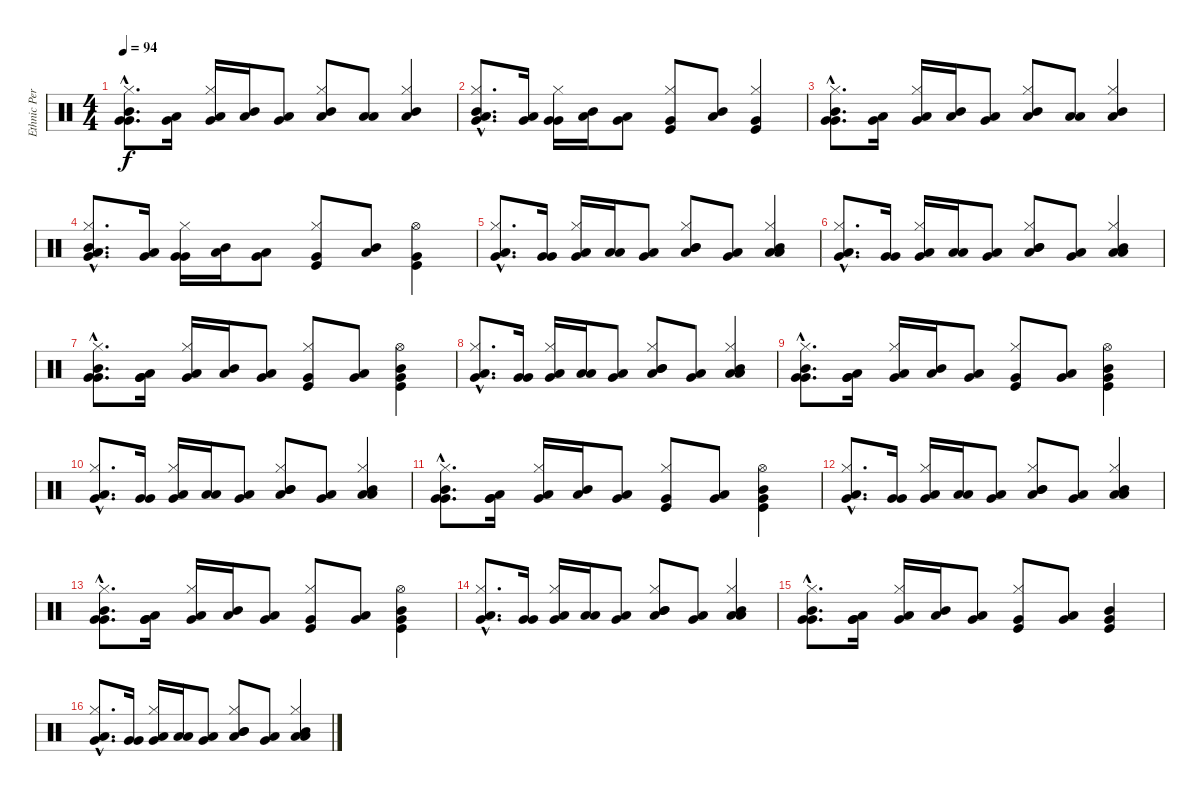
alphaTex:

\track ("Ethnic Percussion" "Ethnic Per") {instrument percussion}
\staff {score}
\articulation defaults
\ts (4 4)
\tempo 94
\clef neutral
\ks c
("Very Low Tom (hit)"{hac} "Very Low Tom (hit)"{hac} "Mid Tom (hit)"{hac} "Hi-Hat (closed)"{hac}).8{d dy f volume 3} ("Low Tom (hit)" "Very Low Tom (hit)").16 ("Very Low Tom (hit)" "Low Tom (hit)" "Hi-Hat (closed)").16 ("Mid Tom (hit)" "Low Tom (hit)").16 ("Very Low Tom (hit)" "Low Tom (hit)").8 ("Mid Tom (hit)" "Low Tom (hit)" "Hi-Hat (closed)").8 ("Low Tom (hit)" "Low Tom (hit)").8 ("Mid Tom (hit)" "Low Floor Tom (hit)" "Hi-Hat (closed)").4 |
("Low Tom (hit)"{hac} "Very Low Tom (hit)"{hac} "Mid Tom (hit)"{hac} "Hi-Hat (closed)"{hac}).8{d volume 2} ("Low Tom (hit)" "Very Low Tom (hit)").16 ("Very Low Tom (hit)" "Very Low Tom (hit)" "Hi-Hat (closed)").16 ("Mid Tom (hit)" "Low Tom (hit)").16 ("Very Low Tom (hit)" "Low Tom (hit)").8 ("Kick (hit)" "Very Low Tom (hit)" "Hi-Hat (closed)").8 ("Low Tom (hit)" "Mid Tom (hit)").8 ("Very Low Tom (hit)" "Kick (hit)" "Hi-Hat (closed)").4 |
("Very Low Tom (hit)"{hac} "Very Low Tom (hit)"{hac} "Mid Tom (hit)"{hac} "Hi-Hat (closed)"{hac}).8{d volume 3} ("Low Tom (hit)" "Very Low Tom (hit)").16 ("Very Low Tom (hit)" "Low Tom (hit)" "Hi-Hat (closed)").16 ("Mid Tom (hit)" "Low Tom (hit)").16 ("Very Low Tom (hit)" "Low Tom (hit)").8 ("Mid Tom (hit)" "Low Tom (hit)" "Hi-Hat (closed)").8 ("Low Tom (hit)" "Low Tom (hit)").8 ("Mid Tom (hit)" "Low Floor Tom (hit)" "Hi-Hat (closed)").4 |
("Low Tom (hit)"{hac} "Very Low Tom (hit)"{hac} "Mid Tom (hit)"{hac} "Hi-Hat (closed)"{hac}).8{d volume 5} ("Low Tom (hit)" "Very Low Tom (hit)").16 ("Very Low Tom (hit)" "Very Low Tom (hit)" "Hi-Hat (closed)").16 ("Mid Tom (hit)" "Low Tom (hit)").16 ("Very Low Tom (hit)" "Low Tom (hit)").8 ("Kick (hit)" "Very Low Tom (hit)" "Hi-Hat (closed)").8 ("Low Tom (hit)" "Mid Tom (hit)").8 ("Very Low Tom (hit)" "Kick (hit)" "Hi-Hat (open)").4 |
("Very Low Tom (hit)"{hac} "Low Floor Tom (hit)"{hac} "Hi-Hat (closed)"{hac}).8{d volume 7} ("Very Low Tom (hit)" "Very Low Tom (hit)").16 ("Very Low Tom (hit)" "Low Floor Tom (hit)" "Hi-Hat (closed)").16 ("Low Tom (hit)" "Low Tom (hit)").16 ("Very Low Tom (hit)" "Low Floor Tom (hit)").8 ("Mid Tom (hit)" "Low Tom (hit)" "Mid Tom (hit)" "Hi-Hat (closed)").8 ("Low Tom (hit)" "Very Low Tom (hit)").8 ("Mid Tom (hit)" "Low Floor Tom (hit)" "Low Tom (hit)" "Hi-Hat (closed)").4 |
("Very Low Tom (hit)"{hac} "Low Floor Tom (hit)"{hac} "Hi-Hat (closed)"{hac}).8{d} ("Very Low Tom (hit)" "Very Low Tom (hit)").16 ("Very Low Tom (hit)" "Low Floor Tom (hit)" "Hi-Hat (closed)").16 ("Low Tom (hit)" "Low Tom (hit)").16 ("Very Low Tom (hit)" "Low Floor Tom (hit)").8 ("Mid Tom (hit)" "Low Tom (hit)" "Mid Tom (hit)" "Hi-Hat (closed)").8 ("Low Tom (hit)" "Very Low Tom (hit)").8 ("Mid Tom (hit)" "Low Floor Tom (hit)" "Low Tom (hit)" "Hi-Hat (closed)").4 |
("Very Low Tom (hit)"{hac} "Very Low Tom (hit)"{hac} "Mid Tom (hit)"{hac} "Hi-Hat (closed)"{hac}).8{d} ("Very Low Tom (hit)" "Very Low Tom (hit)" "Low Floor Tom (hit)").16 ("Very Low Tom (hit)" "Low Floor Tom (hit)" "Hi-Hat (closed)").16 ("Mid Tom (hit)" "Low Tom (hit)").16 ("Very Low Tom (hit)" "Low Tom (hit)").8 ("Kick (hit)" "Very Low Tom (hit)" "Hi-Hat (closed)").8 ("Low Tom (hit)" "Very Low Tom (hit)").8 ("Very Low Tom (hit)" "Kick (hit)" "Hi-Hat (open)" "Mid Tom (hit)").4 |
("Very Low Tom (hit)"{hac} "Low Floor Tom (hit)"{hac} "Hi-Hat (closed)"{hac}).8{d} ("Very Low Tom (hit)" "Very Low Tom (hit)").16 ("Very Low Tom (hit)" "Low Floor Tom (hit)" "Hi-Hat (closed)").16 ("Low Tom (hit)" "Low Tom (hit)").16 ("Very Low Tom (hit)" "Low Floor Tom (hit)").8 ("Mid Tom (hit)" "Low Tom (hit)" "Mid Tom (hit)" "Hi-Hat (closed)").8 ("Low Tom (hit)" "Very Low Tom (hit)").8 ("Mid Tom (hit)" "Low Floor Tom (hit)" "Low Tom (hit)" "Hi-Hat (closed)").4 |
("Very Low Tom (hit)"{hac} "Very Low Tom (hit)"{hac} "Mid Tom (hit)"{hac} "Hi-Hat (closed)"{hac}).8{d} ("Very Low Tom (hit)" "Very Low Tom (hit)" "Low Floor Tom (hit)").16 ("Very Low Tom (hit)" "Low Floor Tom (hit)" "Hi-Hat (closed)").16 ("Mid Tom (hit)" "Low Tom (hit)").16 ("Very Low Tom (hit)" "Low Tom (hit)").8 ("Kick (hit)" "Very Low Tom (hit)" "Hi-Hat (closed)").8 ("Low Tom (hit)" "Very Low Tom (hit)").8 ("Very Low Tom (hit)" "Kick (hit)" "Hi-Hat (open)" "Mid Tom (hit)").4 |
("Very Low Tom (hit)"{hac} "Low Floor Tom (hit)"{hac} "Hi-Hat (closed)"{hac}).8{d} ("Very Low Tom (hit)" "Very Low Tom (hit)").16 ("Very Low Tom (hit)" "Low Floor Tom (hit)" "Hi-Hat (closed)").16 ("Low Tom (hit)" "Low Tom (hit)").16 ("Very Low Tom (hit)" "Low Floor Tom (hit)").8 ("Mid Tom (hit)" "Low Tom (hit)" "Mid Tom (hit)" "Hi-Hat (closed)").8 ("Low Tom (hit)" "Very Low Tom (hit)").8 ("Mid Tom (hit)" "Low Floor Tom (hit)" "Low Tom (hit)" "Hi-Hat (closed)").4 |
("Very Low Tom (hit)"{hac} "Very Low Tom (hit)"{hac} "Mid Tom (hit)"{hac} "Hi-Hat (closed)"{hac}).8{d} ("Very Low Tom (hit)" "Very Low Tom (hit)" "Low Floor Tom (hit)").16 ("Very Low Tom (hit)" "Low Floor Tom (hit)" "Hi-Hat (closed)").16 ("Mid Tom (hit)" "Low Tom (hit)").16 ("Very Low Tom (hit)" "Low Tom (hit)").8 ("Kick (hit)" "Very Low Tom (hit)" "Hi-Hat (closed)").8 ("Low Tom (hit)" "Very Low Tom (hit)").8 ("Very Low Tom (hit)" "Kick (hit)" "Hi-Hat (open)" "Mid Tom (hit)").4 |
("Very Low Tom (hit)"{hac} "Low Floor Tom (hit)"{hac} "Hi-Hat (closed)"{hac}).8{d} ("Very Low Tom (hit)" "Very Low Tom (hit)").16 ("Very Low Tom (hit)" "Low Floor Tom (hit)" "Hi-Hat (closed)").16 ("Low Tom (hit)" "Low Tom (hit)").16 ("Very Low Tom (hit)" "Low Floor Tom (hit)").8 ("Mid Tom (hit)" "Low Tom (hit)" "Mid Tom (hit)" "Hi-Hat (closed)").8 ("Low Tom (hit)" "Very Low Tom (hit)").8 ("Mid Tom (hit)" "Low Floor Tom (hit)" "Low Tom (hit)" "Hi-Hat (closed)").4 |
("Very Low Tom (hit)"{hac} "Very Low Tom (hit)"{hac} "Mid Tom (hit)"{hac} "Hi-Hat (closed)"{hac}).8{d} ("Very Low Tom (hit)" "Very Low Tom (hit)" "Low Floor Tom (hit)").16 ("Very Low Tom (hit)" "Low Floor Tom (hit)" "Hi-Hat (closed)").16 ("Mid Tom (hit)" "Low Tom (hit)").16 ("Very Low Tom (hit)" "Low Tom (hit)").8 ("Kick (hit)" "Very Low Tom (hit)" "Hi-Hat (closed)").8 ("Low Tom (hit)" "Very Low Tom (hit)").8 ("Very Low Tom (hit)" "Kick (hit)" "Hi-Hat (open)" "Mid Tom (hit)").4 |
("Very Low Tom (hit)"{hac} "Low Floor Tom (hit)"{hac} "Hi-Hat (closed)"{hac}).8{d} ("Very Low Tom (hit)" "Very Low Tom (hit)").16 ("Very Low Tom (hit)" "Low Floor Tom (hit)" "Hi-Hat (closed)").16 ("Low Tom (hit)" "Low Tom (hit)").16 ("Very Low Tom (hit)" "Low Floor Tom (hit)").8 ("Mid Tom (hit)" "Low Tom (hit)" "Mid Tom (hit)" "Hi-Hat (closed)").8 ("Low Tom (hit)" "Very Low Tom (hit)").8 ("Mid Tom (hit)" "Low Floor Tom (hit)" "Low Tom (hit)" "Hi-Hat (closed)").4 |
("Very Low Tom (hit)"{hac} "Very Low Tom (hit)"{hac} "Mid Tom (hit)"{hac} "Hi-Hat (closed)"{hac}).8{d} ("Very Low Tom (hit)" "Very Low Tom (hit)" "Low Floor Tom (hit)").16 ("Very Low Tom (hit)" "Low Floor Tom (hit)" "Hi-Hat (closed)").16 ("Mid Tom (hit)" "Low Tom (hit)").16 ("Very Low Tom (hit)" "Low Tom (hit)").8 ("Kick (hit)" "Very Low Tom (hit)" "Hi-Hat (closed)").8 ("Low Tom (hit)" "Very Low Tom (hit)").8 ("Very Low Tom (hit)" "Kick (hit)" "Mid Tom (hit)").4 |
("Very Low Tom (hit)"{hac} "Low Floor Tom (hit)"{hac} "Hi-Hat (closed)"{hac}).8{d} ("Very Low Tom (hit)" "Very Low Tom (hit)").16 ("Very Low Tom (hit)" "Low Floor Tom (hit)" "Hi-Hat (closed)").16 ("Low Tom (hit)" "Low Tom (hit)").16 ("Very Low Tom (hit)" "Low Floor Tom (hit)").8 ("Mid Tom (hit)" "Low Tom (hit)" "Mid Tom (hit)" "Hi-Hat (closed)").8 ("Low Tom (hit)" "Very Low Tom (hit)").8 ("Mid Tom (hit)" "Low Floor Tom (hit)" "Low Tom (hit)" "Hi-Hat (closed)").4
